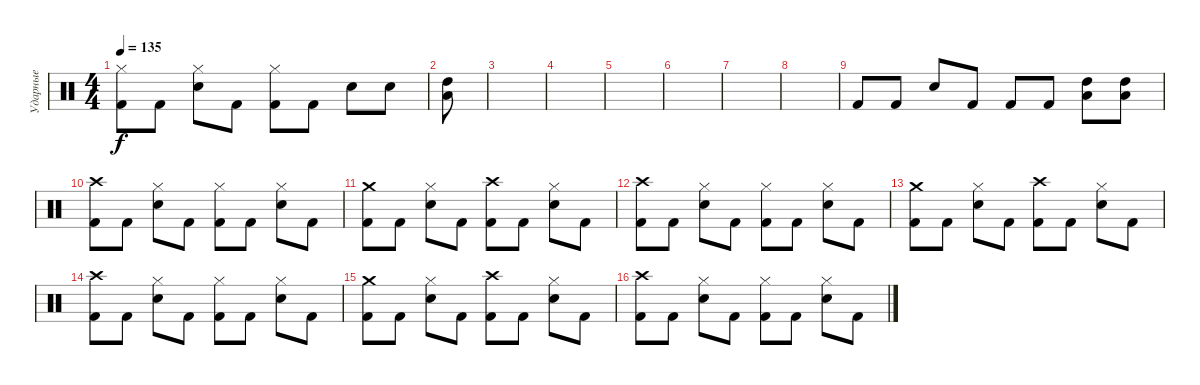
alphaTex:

\track ("Ударные" "Ударные") {solo instrument percussion}
\staff {score}
\articulation defaults
\ts (4 4)
\tempo 135
\clef neutral
\ks c
("Kick (hit) 2" "Hi-Hat (closed)").8{dy f} "Kick (hit) 2".8 ("Snare (hit) 2" "Hi-Hat (closed)").8 "Kick (hit) 2".8 ("Kick (hit) 2" "Hi-Hat (closed)").8 "Kick (hit) 2".8 "Snare (hit) 2".8 "Snare (hit) 2".8 |
("Low Tom (hit)" "High Tom (hit)").8 |
|
|
|
|
|
|
"Kick (hit) 2".8 "Kick (hit) 2".8 "Snare (hit) 2".8 "Kick (hit) 2".8 "Kick (hit) 2".8 "Kick (hit) 2".8 ("Low Tom (hit)" "High Tom (hit)").8 ("Low Tom (hit)" "High Tom (hit)").8 |
("Kick (hit) 2" "Crash high (hit)").8 "Kick (hit) 2".8 ("Snare (hit) 2" "Hi-Hat (closed)").8 "Kick (hit) 2".8 ("Kick (hit) 2" "Hi-Hat (closed)").8 "Kick (hit) 2".8 ("Snare (hit) 2" "Hi-Hat (closed)").8 "Kick (hit) 2".8 |
("Kick (hit) 2" "Crash medium (hit)").8 "Kick (hit) 2".8 ("Snare (hit) 2" "Hi-Hat (closed)").8 "Kick (hit) 2".8 ("Kick (hit) 2" "Crash high (hit)").8 "Kick (hit) 2".8 ("Snare (hit) 2" "Hi-Hat (closed)").8 "Kick (hit) 2".8 |
("Kick (hit) 2" "Crash high (hit)").8 "Kick (hit) 2".8 ("Snare (hit) 2" "Hi-Hat (closed)").8 "Kick (hit) 2".8 ("Kick (hit) 2" "Hi-Hat (closed)").8 "Kick (hit) 2".8 ("Snare (hit) 2" "Hi-Hat (closed)").8 "Kick (hit) 2".8 |
("Kick (hit) 2" "Crash medium (hit)").8 "Kick (hit) 2".8 ("Snare (hit) 2" "Hi-Hat (closed)").8 "Kick (hit) 2".8 ("Kick (hit) 2" "Crash high (hit)").8 "Kick (hit) 2".8 ("Snare (hit) 2" "Hi-Hat (closed)").8 "Kick (hit) 2".8 |
("Kick (hit) 2" "Crash high (hit)").8 "Kick (hit) 2".8 ("Snare (hit) 2" "Hi-Hat (closed)").8 "Kick (hit) 2".8 ("Kick (hit) 2" "Hi-Hat (closed)").8 "Kick (hit) 2".8 ("Snare (hit) 2" "Hi-Hat (closed)").8 "Kick (hit) 2".8 |
("Kick (hit) 2" "Crash medium (hit)").8 "Kick (hit) 2".8 ("Snare (hit) 2" "Hi-Hat (closed)").8 "Kick (hit) 2".8 ("Kick (hit) 2" "Crash high (hit)").8 "Kick (hit) 2".8 ("Snare (hit) 2" "Hi-Hat (closed)").8 "Kick (hit) 2".8 |
("Kick (hit) 2" "Crash high (hit)").8 "Kick (hit) 2".8 ("Snare (hit) 2" "Hi-Hat (closed)").8 "Kick (hit) 2".8 ("Kick (hit) 2" "Hi-Hat (closed)").8 "Kick (hit) 2".8 ("Snare (hit) 2" "Hi-Hat (closed)").8 "Kick (hit) 2".8
